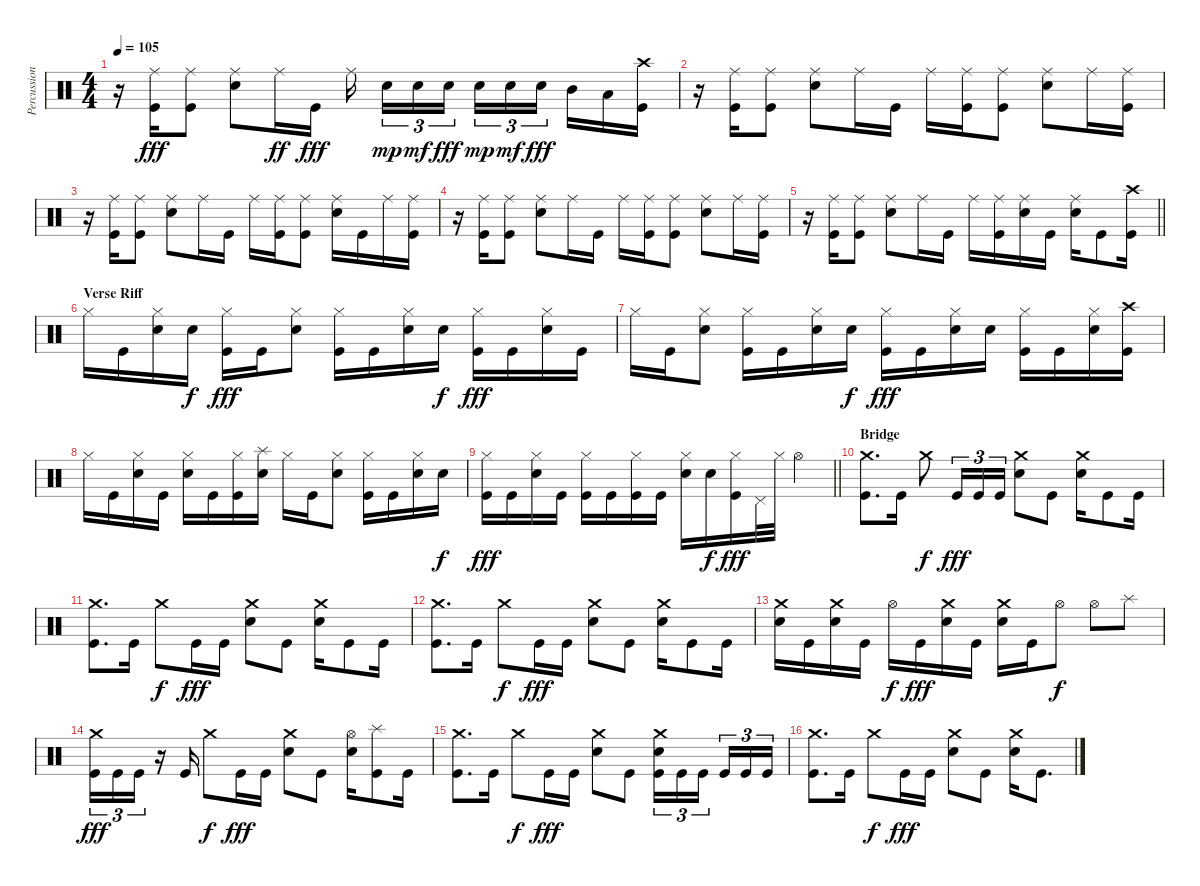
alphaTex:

\track ("Percussion" "Percussion") {instrument percussion}
\staff {score}
\articulation defaults
\ts (4 4)
\tempo 105
\clef neutral
\ks c
r.16{dy fff} ("Ride (middle)" "Kick (hit)").16 ("Ride (middle)" "Kick (hit)").8 ("Ride (middle)" "Electric Snare (hit)").8 "Ride (middle)".16{dy ff} "Kick (hit)".16{dy fff} "Ride (middle)".16{beam splitsecondary} "Electric Snare (hit)".16{tu (3 2) dy mp} "Electric Snare (hit)".16{tu (3 2) dy mf} "Electric Snare (hit)".16{tu (3 2) dy fff beam splitsecondary} "Electric Snare (hit)".16{tu (3 2) dy mp} "Electric Snare (hit)".16{tu (3 2) dy mf} "Electric Snare (hit)".16{tu (3 2) dy fff beam splitsecondary} "Mid Tom (hit)".16 "Low Tom (hit)".16 ("Crash high (hit)" "Kick (hit)").16 |
r.16 ("Ride (middle)" "Kick (hit)").16 ("Ride (middle)" "Kick (hit)").8 ("Ride (middle)" "Electric Snare (hit)").8 "Ride (middle)".16 "Kick (hit)".16 "Ride (middle)".16 ("Ride (middle)" "Kick (hit)").16 ("Ride (middle)" "Kick (hit)").8 ("Ride (middle)" "Electric Snare (hit)").8 "Ride (middle)".16 ("Ride (middle)" "Kick (hit)").16 |
r.16 ("Ride (middle)" "Kick (hit)").16 ("Ride (middle)" "Kick (hit)").8 ("Ride (middle)" "Electric Snare (hit)").8 "Ride (middle)".16 "Kick (hit)".16 "Ride (middle)".16 ("Ride (middle)" "Kick (hit)").16 ("Ride (middle)" "Kick (hit)").8 ("Ride (middle)" "Electric Snare (hit)").16 "Kick (hit)".16 "Ride (middle)".16 ("Ride (middle)" "Kick (hit)").16 |
r.16 ("Ride (middle)" "Kick (hit)").16 ("Ride (middle)" "Kick (hit)").8 ("Ride (middle)" "Electric Snare (hit)").8 "Ride (middle)".16 "Kick (hit)".16 "Ride (middle)".16 ("Ride (middle)" "Kick (hit)").16 ("Ride (middle)" "Kick (hit)").8 ("Ride (middle)" "Electric Snare (hit)").8 "Ride (middle)".16 ("Ride (middle)" "Kick (hit)").16 |
\barLineRight lightlight
r.16 ("Ride (middle)" "Kick (hit)").16 ("Ride (middle)" "Kick (hit)").8 ("Ride (middle)" "Electric Snare (hit)").8 "Ride (middle)".16 "Kick (hit)".16 "Ride (middle)".16 ("Ride (middle)" "Kick (hit)").16 ("Ride (middle)" "Electric Snare (hit)").16 "Kick (hit)".16 ("Ride (middle)" "Electric Snare (hit)").16 "Kick (hit)".8 ("Crash high (hit)" "Kick (hit)").16 |
\section ("" "Verse Riff")
"Hi-Hat (closed)".16 "Kick (hit)".16 ("Hi-Hat (closed)" "Electric Snare (hit)").16 "Electric Snare (hit)".16{dy f} ("Hi-Hat (closed)" "Kick (hit)").16{dy fff} "Kick (hit)".16 ("Hi-Hat (closed)" "Electric Snare (hit)").8 ("Hi-Hat (closed)" "Kick (hit)").16 "Kick (hit)".16 ("Hi-Hat (closed)" "Electric Snare (hit)").16 "Electric Snare (hit)".16{dy f} ("Hi-Hat (closed)" "Kick (hit)").16{dy fff} "Kick (hit)".16 ("Hi-Hat (closed)" "Electric Snare (hit)").16 "Kick (hit)".16 |
"Hi-Hat (closed)".16 "Kick (hit)".16 ("Hi-Hat (closed)" "Electric Snare (hit)").8 ("Hi-Hat (closed)" "Kick (hit)").16 "Kick (hit)".16 ("Hi-Hat (closed)" "Electric Snare (hit)").16 "Electric Snare (hit)".16{dy f} ("Hi-Hat (closed)" "Kick (hit)").16{dy fff} "Kick (hit)".16 ("Hi-Hat (closed)" "Electric Snare (hit)").16 "Electric Snare (hit)".16 ("Hi-Hat (closed)" "Kick (hit)").16 "Kick (hit)".16 ("Hi-Hat (closed)" "Electric Snare (hit)").16 ("Crash high (hit)" "Kick (hit)").16 |
"Hi-Hat (closed)".16 "Kick (hit)".16 ("Hi-Hat (closed)" "Electric Snare (hit)").16 "Kick (hit)".16 ("Hi-Hat (closed)" "Electric Snare (hit)").16 "Kick (hit)".16 ("Hi-Hat (closed)" "Kick (hit)").16 ("Splash (hit)" "Electric Snare (hit)").16 "Hi-Hat (closed)".16 "Kick (hit)".16 ("Hi-Hat (closed)" "Electric Snare (hit)").8 ("Hi-Hat (closed)" "Kick (hit)").16 "Kick (hit)".16 ("Hi-Hat (closed)" "Electric Snare (hit)").16 "Electric Snare (hit)".16{dy f} |
\barLineRight lightlight
("Hi-Hat (closed)" "Kick (hit)").16{dy fff} "Kick (hit)".16 ("Hi-Hat (closed)" "Electric Snare (hit)").16 "Kick (hit)".16 ("Hi-Hat (closed)" "Kick (hit)").16 "Kick (hit)".16 ("Hi-Hat (closed)" "Kick (hit)").16 "Kick (hit)".16 ("Hi-Hat (closed)" "Electric Snare (hit)").16 "Electric Snare (hit)".16{dy f} ("Hi-Hat (closed)" "Kick (hit)").16{dy fff} "Pedal Hi-Hat (hit)".32 "Hi-Hat (closed)".32 "Hi-Hat (open)".4 |
\section ("" "Bridge")
("Crash medium (hit)" "Kick (hit)").8{d} "Kick (hit)".16 "Crash medium (hit)".8{dy f} "Kick (hit)".16{tu (3 2) dy fff} "Kick (hit)".16{tu (3 2)} "Kick (hit)".16{tu (3 2)} ("Crash medium (hit)" "Electric Snare (hit)").8 "Kick (hit)".8 ("Crash medium (hit)" "Electric Snare (hit)").16 "Kick (hit)".8 "Kick (hit)".16 |
("Crash medium (hit)" "Kick (hit)").8{d} "Kick (hit)".16 "Crash medium (hit)".8{dy f} "Kick (hit)".16{dy fff} "Kick (hit)".16 ("Crash medium (hit)" "Electric Snare (hit)").8 "Kick (hit)".8 ("Crash medium (hit)" "Electric Snare (hit)").16 "Kick (hit)".8 "Kick (hit)".16 |
("Crash medium (hit)" "Kick (hit)").8{d} "Kick (hit)".16 "Crash medium (hit)".8{dy f} "Kick (hit)".16{dy fff} "Kick (hit)".16 ("Crash medium (hit)" "Electric Snare (hit)").8 "Kick (hit)".8 ("Crash medium (hit)" "Electric Snare (hit)").16 "Kick (hit)".8 "Kick (hit)".16 |
("Crash medium (hit)" "Electric Snare (hit)").16 "Kick (hit)".16 ("Crash medium (hit)" "Electric Snare (hit)").16 "Kick (hit)".16 "Hi-Hat (open)".16{dy f} "Kick (hit)".16{dy fff} ("Crash medium (hit)" "Electric Snare (hit)").16 "Kick (hit)".16 ("Crash medium (hit)" "Electric Snare (hit)").16 "Kick (hit)".16 "Hi-Hat (open)".8{dy f} "Hi-Hat (open)".8 "Splash (hit)".8 |
("Crash medium (hit)" "Kick (hit)").16{tu (3 2) dy fff} "Kick (hit)".16{tu (3 2)} "Kick (hit)".16{tu (3 2)} r.16 "Kick (hit)".16 "Crash medium (hit)".8{dy f} "Kick (hit)".16{dy fff} "Kick (hit)".16 ("Crash medium (hit)" "Electric Snare (hit)").8 "Kick (hit)".8 ("Hi-Hat (open)" "Electric Snare (hit)").16 ("Splash (hit)" "Kick (hit)").8 "Kick (hit)".16 |
("Crash medium (hit)" "Kick (hit)").8{d} "Kick (hit)".16 "Crash medium (hit)".8{dy f} "Kick (hit)".16{dy fff} "Kick (hit)".16 ("Crash medium (hit)" "Electric Snare (hit)").8 "Kick (hit)".8 ("Crash medium (hit)" "Electric Snare (hit)" "Kick (hit)").16{tu (3 2)} "Kick (hit)".16{tu (3 2)} "Kick (hit)".16{tu (3 2) beam splitsecondary} "Kick (hit)".16{tu (3 2)} "Kick (hit)".16{tu (3 2)} "Kick (hit)".16{tu (3 2)} |
("Crash medium (hit)" "Kick (hit)").8{d} "Kick (hit)".16 "Crash medium (hit)".8{dy f} "Kick (hit)".16{dy fff} "Kick (hit)".16 ("Crash medium (hit)" "Electric Snare (hit)").8 "Kick (hit)".8 ("Crash medium (hit)" "Electric Snare (hit)").16 "Kick (hit)".8{d}
